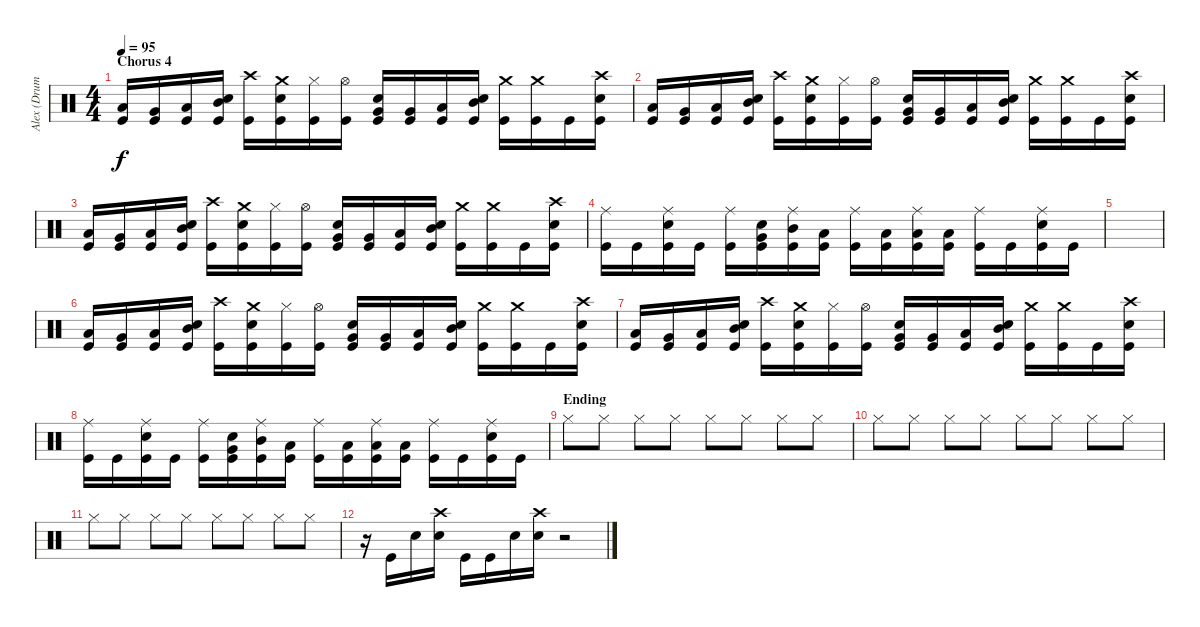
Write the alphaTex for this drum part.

\track ("Alex (Drums)" "Alex (Drum") {instrument percussion}
\staff {score}
\articulation defaults
\ts (4 4)
\section ("" "Chorus 4")
\tempo 95
\clef neutral
\ks c
("Low Tom (hit)" "Kick (hit)").16{dy f} ("Very Low Tom (hit)" "Kick (hit)").16 ("Low Floor Tom (hit)" "Kick (hit)").16 ("Mid Tom (hit)" "Electric Snare (hit)" "Kick (hit)").16 ("Crash high (hit)" "Kick (hit)").16 ("Crash medium (hit)" "Electric Snare (hit)" "Kick (hit)").16 ("Hi-Hat (closed)" "Kick (hit)").16 ("Hi-Hat (open)" "Kick (hit)").16 ("Very Low Tom (hit)" "Electric Snare (hit)" "Kick (hit)").16 ("Very Low Tom (hit)" "Kick (hit)").16 ("Low Tom (hit)" "Kick (hit)").16 ("Mid Tom (hit)" "Electric Snare (hit)" "Kick (hit)").16 ("Crash medium (hit)" "Kick (hit)").16 ("Crash medium (hit)" "Kick (hit)").16 "Kick (hit)".16 ("Crash high (hit)" "Electric Snare (hit)" "Kick (hit)").16 |
("Low Tom (hit)" "Kick (hit)").16 ("Very Low Tom (hit)" "Kick (hit)").16 ("Low Floor Tom (hit)" "Kick (hit)").16 ("Mid Tom (hit)" "Electric Snare (hit)" "Kick (hit)").16 ("Crash high (hit)" "Kick (hit)").16 ("Crash medium (hit)" "Electric Snare (hit)" "Kick (hit)").16 ("Hi-Hat (closed)" "Kick (hit)").16 ("Hi-Hat (open)" "Kick (hit)").16 ("Very Low Tom (hit)" "Electric Snare (hit)" "Kick (hit)").16 ("Very Low Tom (hit)" "Kick (hit)").16 ("Low Tom (hit)" "Kick (hit)").16 ("Mid Tom (hit)" "Electric Snare (hit)" "Kick (hit)").16 ("Crash medium (hit)" "Kick (hit)").16 ("Crash medium (hit)" "Kick (hit)").16 "Kick (hit)".16 ("Crash high (hit)" "Electric Snare (hit)" "Kick (hit)").16 |
("Low Tom (hit)" "Kick (hit)").16 ("Very Low Tom (hit)" "Kick (hit)").16 ("Low Floor Tom (hit)" "Kick (hit)").16 ("Mid Tom (hit)" "Electric Snare (hit)" "Kick (hit)").16 ("Crash high (hit)" "Kick (hit)").16 ("Crash medium (hit)" "Electric Snare (hit)" "Kick (hit)").16 ("Hi-Hat (closed)" "Kick (hit)").16 ("Hi-Hat (open)" "Kick (hit)").16 ("Very Low Tom (hit)" "Electric Snare (hit)" "Kick (hit)").16 ("Very Low Tom (hit)" "Kick (hit)").16 ("Low Tom (hit)" "Kick (hit)").16 ("Mid Tom (hit)" "Electric Snare (hit)" "Kick (hit)").16 ("Crash medium (hit)" "Kick (hit)").16 ("Crash medium (hit)" "Kick (hit)").16 "Kick (hit)".16 ("Crash high (hit)" "Electric Snare (hit)" "Kick (hit)").16 |
("Ride (middle)" "Kick (hit)").16 "Kick (hit)".16 ("Ride (middle)" "Electric Snare (hit)" "Kick (hit)").16 "Kick (hit)".16 ("Ride (middle)" "Kick (hit)").16 ("Very Low Tom (hit)" "Electric Snare (hit)" "Kick (hit)").16 ("Ride (middle)" "Mid Tom (hit)" "Kick (hit)").16 ("Low Tom (hit)" "Kick (hit)").16 ("Ride (middle)" "Kick (hit)").16 ("Low Tom (hit)" "Kick (hit)").16 ("Ride (middle)" "Low Tom (hit)" "Kick (hit)").16 ("Low Tom (hit)" "Kick (hit)").16 ("Ride (middle)" "Kick (hit)").16 "Kick (hit)".16 ("Ride (middle)" "Electric Snare (hit)" "Kick (hit)").16 "Kick (hit)".16 |
\section ("" "")
|
("Low Tom (hit)" "Kick (hit)").16 ("Very Low Tom (hit)" "Kick (hit)").16 ("Low Floor Tom (hit)" "Kick (hit)").16 ("Mid Tom (hit)" "Electric Snare (hit)" "Kick (hit)").16 ("Crash high (hit)" "Kick (hit)").16 ("Crash medium (hit)" "Electric Snare (hit)" "Kick (hit)").16 ("Hi-Hat (closed)" "Kick (hit)").16 ("Hi-Hat (open)" "Kick (hit)").16 ("Very Low Tom (hit)" "Electric Snare (hit)" "Kick (hit)").16 ("Very Low Tom (hit)" "Kick (hit)").16 ("Low Tom (hit)" "Kick (hit)").16 ("Mid Tom (hit)" "Electric Snare (hit)" "Kick (hit)").16 ("Crash medium (hit)" "Kick (hit)").16 ("Crash medium (hit)" "Kick (hit)").16 "Kick (hit)".16 ("Crash high (hit)" "Electric Snare (hit)" "Kick (hit)").16 |
("Low Tom (hit)" "Kick (hit)").16 ("Very Low Tom (hit)" "Kick (hit)").16 ("Low Floor Tom (hit)" "Kick (hit)").16 ("Mid Tom (hit)" "Electric Snare (hit)" "Kick (hit)").16 ("Crash high (hit)" "Kick (hit)").16 ("Crash medium (hit)" "Electric Snare (hit)" "Kick (hit)").16 ("Hi-Hat (closed)" "Kick (hit)").16 ("Hi-Hat (open)" "Kick (hit)").16 ("Very Low Tom (hit)" "Electric Snare (hit)" "Kick (hit)").16 ("Very Low Tom (hit)" "Kick (hit)").16 ("Low Tom (hit)" "Kick (hit)").16 ("Mid Tom (hit)" "Electric Snare (hit)" "Kick (hit)").16 ("Crash medium (hit)" "Kick (hit)").16 ("Crash medium (hit)" "Kick (hit)").16 "Kick (hit)".16 ("Crash high (hit)" "Electric Snare (hit)" "Kick (hit)").16 |
("Ride (middle)" "Kick (hit)").16 "Kick (hit)".16 ("Ride (middle)" "Electric Snare (hit)" "Kick (hit)").16 "Kick (hit)".16 ("Ride (middle)" "Kick (hit)").16 ("Very Low Tom (hit)" "Electric Snare (hit)" "Kick (hit)").16 ("Ride (middle)" "Mid Tom (hit)" "Kick (hit)").16 ("Low Tom (hit)" "Kick (hit)").16 ("Ride (middle)" "Kick (hit)").16 ("Low Tom (hit)" "Kick (hit)").16 ("Ride (middle)" "Low Tom (hit)" "Kick (hit)").16 ("Low Tom (hit)" "Kick (hit)").16 ("Ride (middle)" "Kick (hit)").16 "Kick (hit)".16 ("Ride (middle)" "Electric Snare (hit)" "Kick (hit)").16 "Kick (hit)".16 |
\section ("" "Ending")
"Hi-Hat (closed)".8 "Hi-Hat (closed)".8 "Hi-Hat (closed)".8 "Hi-Hat (closed)".8 "Hi-Hat (closed)".8 "Hi-Hat (closed)".8 "Hi-Hat (closed)".8 "Hi-Hat (closed)".8 |
"Hi-Hat (closed)".8 "Hi-Hat (closed)".8 "Hi-Hat (closed)".8 "Hi-Hat (closed)".8 "Hi-Hat (closed)".8 "Hi-Hat (closed)".8 "Hi-Hat (closed)".8 "Hi-Hat (closed)".8 |
"Hi-Hat (closed)".8 "Hi-Hat (closed)".8 "Hi-Hat (closed)".8 "Hi-Hat (closed)".8 "Hi-Hat (closed)".8 "Hi-Hat (closed)".8 "Hi-Hat (closed)".8 "Hi-Hat (closed)".8 |
r.16 "Kick (hit)".16 "Electric Snare (hit)".16 ("Crash high (hit)" "Electric Snare (hit)").16 "Kick (hit)".16 "Kick (hit)".16 "Electric Snare (hit)".16 ("Crash high (hit)" "Electric Snare (hit)").16 r.2
